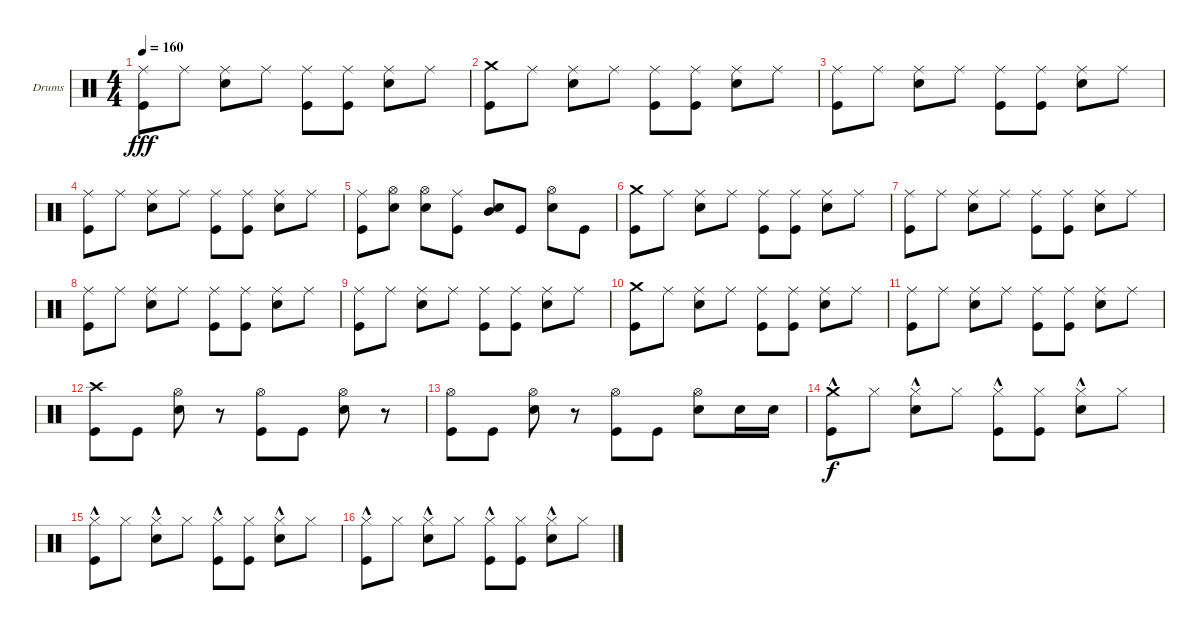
\bracketExtendMode groupsimilarinstruments
\firstSystemTrackNameOrientation horizontal
\otherSystemsTrackNameOrientation horizontal
\track ("Drumkit" "Drums") {instrument percussion}
\staff {score}
\articulation defaults
\ts (4 4)
\tempo 160
\clef neutral
\ks c
("Kick (hit)" "Ride (middle)").8{dy fff} "Ride (middle)".8 ("Ride (middle)" "Snare (hit) 2").8 "Ride (middle)".8 ("Ride (middle)" "Kick (hit)").8 ("Ride (middle)" "Kick (hit)").8 ("Ride (middle)" "Snare (hit) 2").8 "Ride (middle)".8 |
("Kick (hit)" "Crash medium (hit)").8 "Ride (middle)".8 ("Ride (middle)" "Snare (hit) 2").8 "Ride (middle)".8 ("Ride (middle)" "Kick (hit)").8 ("Ride (middle)" "Kick (hit)").8 ("Ride (middle)" "Snare (hit) 2").8 "Ride (middle)".8 |
("Kick (hit)" "Ride (middle)").8 "Ride (middle)".8 ("Ride (middle)" "Snare (hit) 2").8 "Ride (middle)".8 ("Ride (middle)" "Kick (hit)").8 ("Ride (middle)" "Kick (hit)").8 ("Ride (middle)" "Snare (hit) 2").8 "Ride (middle)".8 |
("Kick (hit)" "Ride (middle)").8 "Ride (middle)".8 ("Ride (middle)" "Snare (hit) 2").8 "Ride (middle)".8 ("Ride (middle)" "Kick (hit)").8 ("Ride (middle)" "Kick (hit)").8 ("Ride (middle)" "Snare (hit) 2").8 "Ride (middle)".8 |
("Kick (hit)" "Ride (middle)").8 ("Hi-Hat (open)" "Snare (hit) 2").8 ("Hi-Hat (open)" "Snare (hit) 2").8 ("Ride (middle)" "Kick (hit)").8 ("Mid Tom (hit)" "Snare (hit) 2").8 "Kick (hit)".8 ("Hi-Hat (open)" "Snare (hit) 2").8 "Kick (hit)".8 |
("Kick (hit)" "Crash medium (hit)").8 "Ride (middle)".8 ("Ride (middle)" "Snare (hit) 2").8 "Ride (middle)".8 ("Ride (middle)" "Kick (hit)").8 ("Ride (middle)" "Kick (hit)").8 ("Ride (middle)" "Snare (hit) 2").8 "Ride (middle)".8 |
("Kick (hit)" "Ride (middle)").8 "Ride (middle)".8 ("Ride (middle)" "Snare (hit) 2").8 "Ride (middle)".8 ("Ride (middle)" "Kick (hit)").8 ("Ride (middle)" "Kick (hit)").8 ("Ride (middle)" "Snare (hit) 2").8 "Ride (middle)".8 |
("Kick (hit)" "Ride (middle)").8 "Ride (middle)".8 ("Ride (middle)" "Snare (hit) 2").8 "Ride (middle)".8 ("Ride (middle)" "Kick (hit)").8 ("Ride (middle)" "Kick (hit)").8 ("Ride (middle)" "Snare (hit) 2").8 "Ride (middle)".8 |
("Kick (hit)" "Ride (middle)").8 "Ride (middle)".8 ("Ride (middle)" "Snare (hit) 2").8 "Ride (middle)".8 ("Ride (middle)" "Kick (hit)").8 ("Ride (middle)" "Kick (hit)").8 ("Ride (middle)" "Snare (hit) 2").8 "Ride (middle)".8 |
("Kick (hit)" "Crash medium (hit)").8 "Ride (middle)".8 ("Ride (middle)" "Snare (hit) 2").8 "Ride (middle)".8 ("Ride (middle)" "Kick (hit)").8 ("Ride (middle)" "Kick (hit)").8 ("Ride (middle)" "Snare (hit) 2").8 "Ride (middle)".8 |
("Kick (hit)" "Ride (middle)").8 "Ride (middle)".8 ("Ride (middle)" "Snare (hit) 2").8 "Ride (middle)".8 ("Ride (middle)" "Kick (hit)").8 ("Ride (middle)" "Kick (hit)").8 ("Ride (middle)" "Snare (hit) 2").8 "Ride (middle)".8 |
("Kick (hit)" "Crash high (hit)").8 "Kick (hit)".8 ("Snare (hit) 2" "Hi-Hat (open)").8 r.8 ("Kick (hit)" "Hi-Hat (open)").8 "Kick (hit)".8 ("Snare (hit) 2" "Hi-Hat (open)").8 r.8 |
("Kick (hit)" "Hi-Hat (open)").8 "Kick (hit)".8 ("Snare (hit) 2" "Hi-Hat (open)").8 r.8 ("Kick (hit)" "Hi-Hat (open)").8 "Kick (hit)".8 ("Snare (hit) 2" "Hi-Hat (open)").8 "Snare (hit) 2".16 "Snare (hit) 2".16 |
("Kick (hit)" "Crash medium (hit)"{hac}).8{dy f} "Hi-Hat (closed)".8 ("Snare (hit) 2" "Hi-Hat (closed)"{hac}).8 "Hi-Hat (closed)".8 ("Kick (hit)" "Hi-Hat (closed)"{hac}).8 ("Kick (hit)" "Hi-Hat (closed)").8 ("Snare (hit) 2" "Hi-Hat (closed)"{hac}).8 "Hi-Hat (closed)".8 |
("Kick (hit)" "Hi-Hat (closed)"{hac}).8 "Hi-Hat (closed)".8 ("Snare (hit) 2" "Hi-Hat (closed)"{hac}).8 "Hi-Hat (closed)".8 ("Kick (hit)" "Hi-Hat (closed)"{hac}).8 ("Kick (hit)" "Hi-Hat (closed)").8 ("Snare (hit) 2" "Hi-Hat (closed)"{hac}).8 "Hi-Hat (closed)".8 |
("Kick (hit)" "Hi-Hat (closed)"{hac}).8 "Hi-Hat (closed)".8 ("Snare (hit) 2" "Hi-Hat (closed)"{hac}).8 "Hi-Hat (closed)".8 ("Kick (hit)" "Hi-Hat (closed)"{hac}).8 ("Kick (hit)" "Hi-Hat (closed)").8 ("Snare (hit) 2" "Hi-Hat (closed)"{hac}).8 "Hi-Hat (closed)".8
